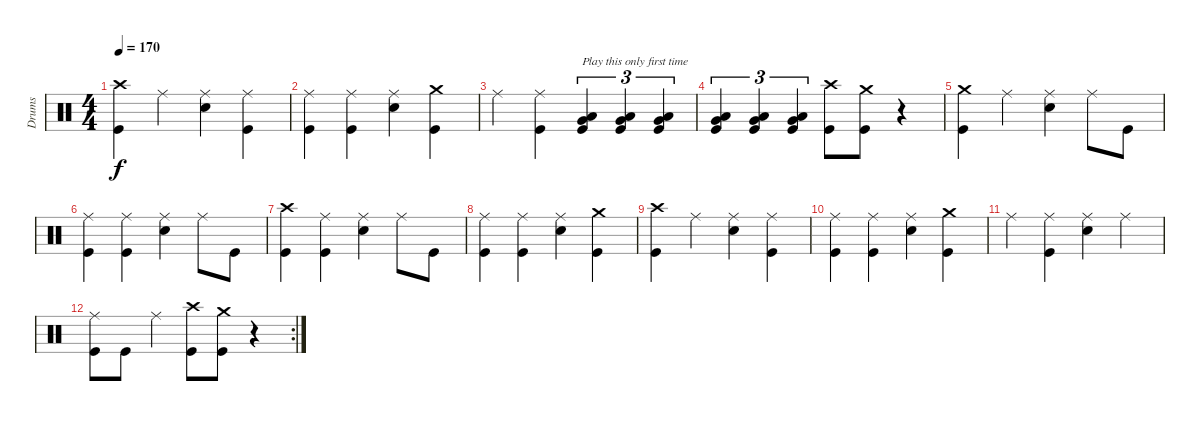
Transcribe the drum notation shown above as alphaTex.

\track ("Drums" "Drums") {instrument percussion}
\staff {score}
\articulation defaults
\ts (4 4)
\tempo 170
\clef neutral
\ks c
("Crash high (hit)" "Kick (hit)").4{dy f} "Ride (middle)".4 ("Ride (middle)" "Snare (hit) 2").4 ("Ride (middle)" "Kick (hit)").4 |
("Ride (middle)" "Kick (hit)").4 ("Ride (middle)" "Kick (hit)").4 ("Ride (middle)" "Snare (hit) 2").4 ("Crash medium (hit)" "Kick (hit)").4 |
"Ride (middle)".4 ("Ride (middle)" "Kick (hit)").4 ("Low Floor Tom (hit)" "Very Low Tom (hit)" "Kick (hit)").4{tu (3 2) txt "Play this only first time"} ("Low Floor Tom (hit)" "Very Low Tom (hit)" "Kick (hit)").4{tu (3 2)} ("Low Floor Tom (hit)" "Very Low Tom (hit)" "Kick (hit)").4{tu (3 2)} |
("Low Floor Tom (hit)" "Very Low Tom (hit)" "Kick (hit)").4{tu (3 2)} ("Low Floor Tom (hit)" "Very Low Tom (hit)" "Kick (hit)").4{tu (3 2)} ("Low Floor Tom (hit)" "Very Low Tom (hit)" "Kick (hit)").4{tu (3 2)} ("Crash high (hit)" "Kick (hit)").8 ("Crash medium (hit)" "Kick (hit)").8 r.4 |
("Crash medium (hit)" "Kick (hit)").4 "Ride (middle)".4 ("Ride (middle)" "Snare (hit) 2").4 "Ride (middle)".8 "Kick (hit)".8 |
("Ride (middle)" "Kick (hit)").4 ("Ride (middle)" "Kick (hit)").4 ("Ride (middle)" "Snare (hit) 2").4 "Ride (middle)".8 "Kick (hit)".8 |
("Crash high (hit)" "Kick (hit)").4 ("Ride (middle)" "Kick (hit)").4 ("Ride (middle)" "Snare (hit) 2").4 "Ride (middle)".8 "Kick (hit)".8 |
("Ride (middle)" "Kick (hit)").4 ("Ride (middle)" "Kick (hit)").4 ("Ride (middle)" "Snare (hit) 2").4 ("Crash medium (hit)" "Kick (hit)").4 |
("Crash high (hit)" "Kick (hit)").4 "Ride (middle)".4 ("Ride (middle)" "Snare (hit) 2").4 ("Ride (middle)" "Kick (hit)").4 |
("Ride (middle)" "Kick (hit)").4 ("Ride (middle)" "Kick (hit)").4 ("Ride (middle)" "Snare (hit) 2").4 ("Crash medium (hit)" "Kick (hit)").4 |
"Ride (middle)".4 ("Ride (middle)" "Kick (hit)").4 ("Ride (middle)" "Snare (hit) 2").4 "Ride (middle)".4 |
\rc 2
("Ride (middle)" "Kick (hit)").8 "Kick (hit)".8 "Ride (middle)".4 ("Crash high (hit)" "Kick (hit)").8 ("Crash medium (hit)" "Kick (hit)").8 r.4
